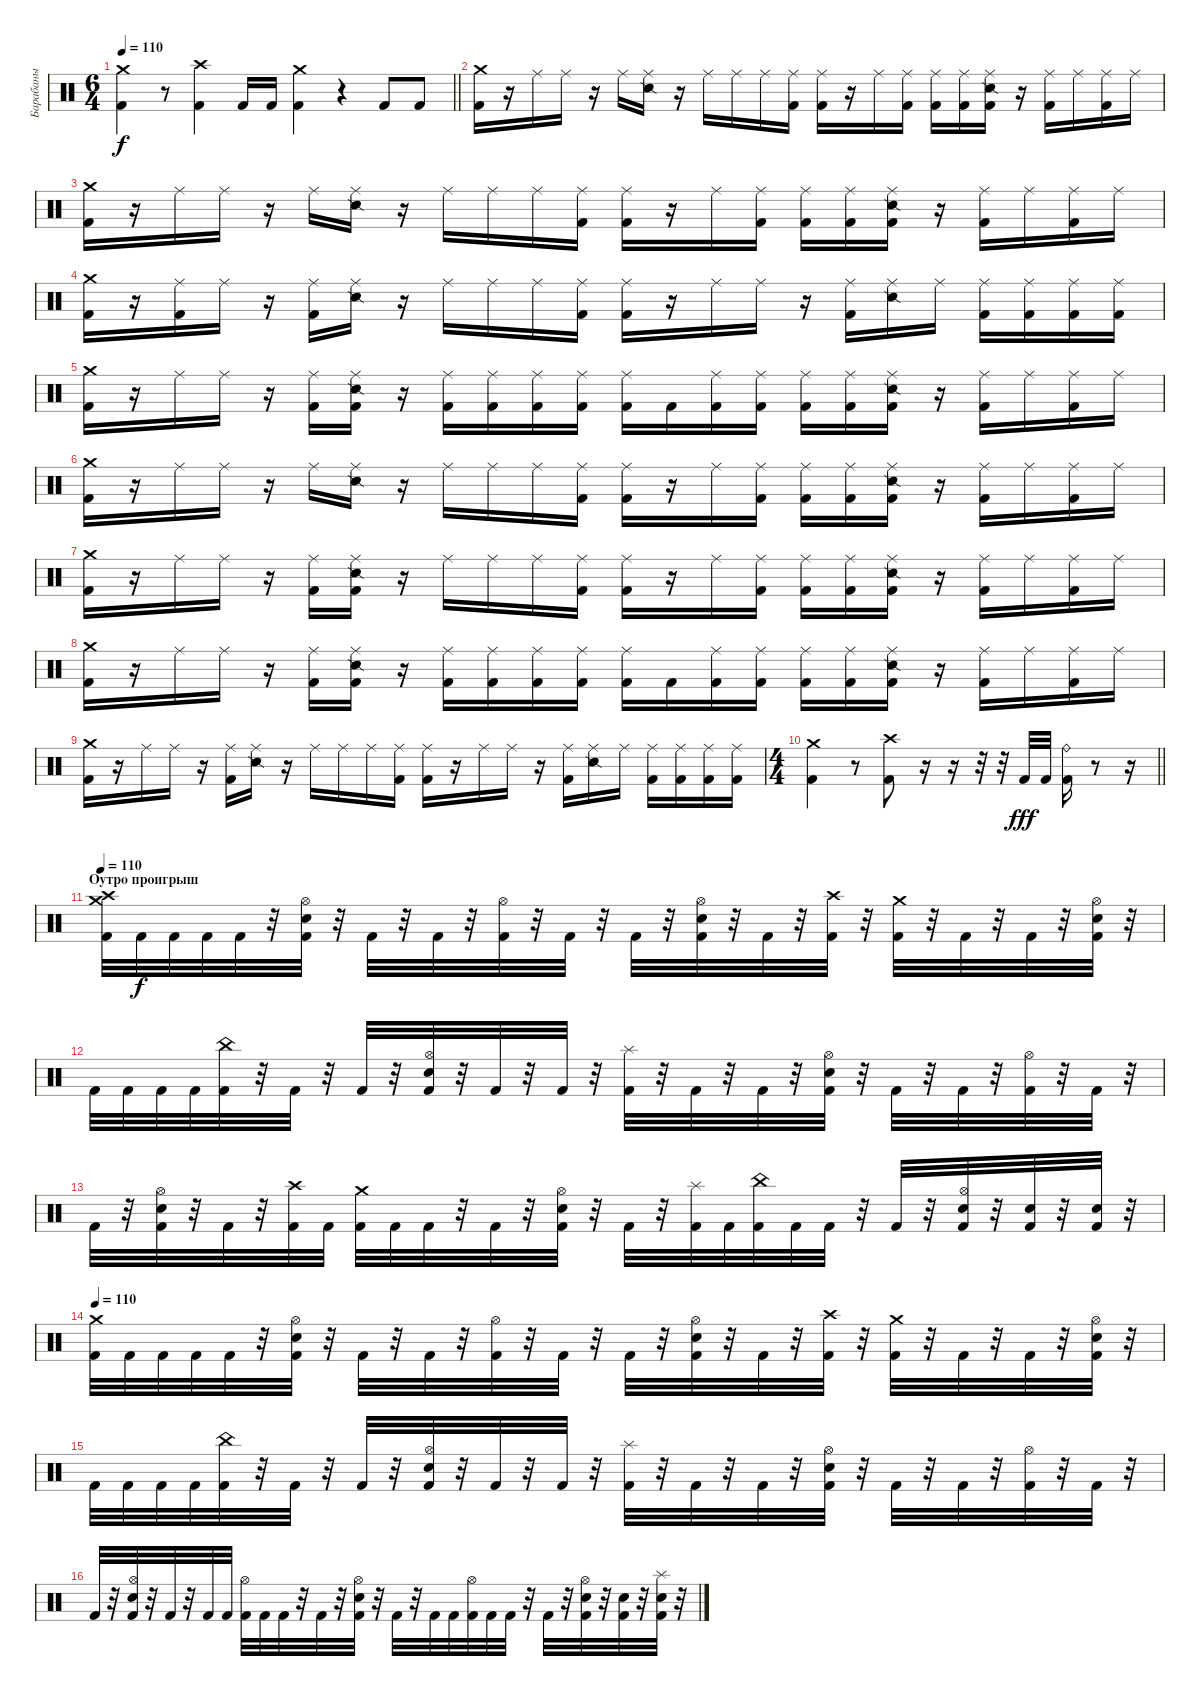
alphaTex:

\track ("Барабаны" "Барабаны") {instrument percussion}
\staff {score}
\articulation defaults
\ts (6 4)
\tempo 110
\clef neutral
\barLineRight lightlight
\ks c
("Crash medium (hit)" "Kick (hit) 2").4{dy f} r.8 ("Crash high (hit)" "Kick (hit) 2").4 "Kick (hit) 2".16 "Kick (hit) 2".16 ("Crash medium (hit)" "Kick (hit) 2").4 r.4 "Kick (hit) 2".8 "Kick (hit) 2".8 |
\section ("" "")
("Crash medium (hit)" "Kick (hit) 2").16 r.16 "Ride (middle)".16 "Ride (middle)".16 r.16 "Ride (middle)".16 ("Ride (middle)" "Snare (side stick) 2").16 r.16 "Ride (middle)".16 "Ride (middle)".16 "Ride (middle)".16 ("Ride (middle)" "Kick (hit) 2").16 ("Ride (middle)" "Kick (hit) 2").16 r.16 "Ride (middle)".16 ("Ride (middle)" "Kick (hit) 2").16 ("Ride (middle)" "Kick (hit) 2").16 ("Ride (middle)" "Kick (hit) 2").16 ("Ride (middle)" "Snare (side stick) 2" "Kick (hit) 2").16 r.16 ("Ride (middle)" "Kick (hit) 2").16 "Ride (middle)".16 ("Ride (middle)" "Kick (hit) 2").16 "Ride (middle)".16 |
("Crash medium (hit)" "Kick (hit) 2").16 r.16 "Ride (middle)".16 "Ride (middle)".16 r.16 "Ride (middle)".16 ("Ride (middle)" "Snare (side stick) 2").16 r.16 "Ride (middle)".16 "Ride (middle)".16 "Ride (middle)".16 ("Ride (middle)" "Kick (hit) 2").16 ("Ride (middle)" "Kick (hit) 2").16 r.16 "Ride (middle)".16 ("Ride (middle)" "Kick (hit) 2").16 ("Ride (middle)" "Kick (hit) 2").16 ("Ride (middle)" "Kick (hit) 2").16 ("Ride (middle)" "Snare (side stick) 2" "Kick (hit) 2").16 r.16 ("Ride (middle)" "Kick (hit) 2").16 "Ride (middle)".16 ("Ride (middle)" "Kick (hit) 2").16 "Ride (middle)".16 |
("Crash medium (hit)" "Kick (hit) 2").16 r.16 ("Ride (middle)" "Kick (hit) 2").16 "Ride (middle)".16 r.16 ("Ride (middle)" "Kick (hit) 2").16 ("Ride (middle)" "Snare (side stick) 2").16 r.16 "Ride (middle)".16 "Ride (middle)".16 "Ride (middle)".16 ("Ride (middle)" "Kick (hit) 2").16 ("Ride (middle)" "Kick (hit) 2").16 r.16 "Ride (middle)".16 "Ride (middle)".16 r.16 ("Ride (middle)" "Kick (hit) 2").16 ("Ride (middle)" "Snare (side stick) 2").16 "Ride (middle)".16 ("Ride (middle)" "Kick (hit) 2").16 ("Ride (middle)" "Kick (hit) 2").16 ("Ride (middle)" "Kick (hit) 2").16 ("Ride (middle)" "Kick (hit) 2").16 |
("Crash medium (hit)" "Kick (hit) 2").16 r.16 "Ride (middle)".16 "Ride (middle)".16 r.16 ("Ride (middle)" "Kick (hit) 2").16 ("Ride (middle)" "Snare (side stick) 2" "Kick (hit) 2").16 r.16 ("Ride (middle)" "Kick (hit) 2").16 ("Ride (middle)" "Kick (hit) 2").16 ("Ride (middle)" "Kick (hit) 2").16 ("Ride (middle)" "Kick (hit) 2").16 ("Ride (middle)" "Kick (hit) 2").16 "Kick (hit) 2".16 ("Ride (middle)" "Kick (hit) 2").16 ("Ride (middle)" "Kick (hit) 2").16 ("Ride (middle)" "Kick (hit) 2").16 ("Ride (middle)" "Kick (hit) 2").16 ("Ride (middle)" "Snare (side stick) 2" "Kick (hit) 2").16 r.16 ("Ride (middle)" "Kick (hit) 2").16 "Ride (middle)".16 ("Ride (middle)" "Kick (hit) 2").16 "Ride (middle)".16 |
("Crash medium (hit)" "Kick (hit) 2").16 r.16 "Ride (middle)".16 "Ride (middle)".16 r.16 "Ride (middle)".16 ("Ride (middle)" "Snare (side stick) 2").16 r.16 "Ride (middle)".16 "Ride (middle)".16 "Ride (middle)".16 ("Ride (middle)" "Kick (hit) 2").16 ("Ride (middle)" "Kick (hit) 2").16 r.16 "Ride (middle)".16 ("Ride (middle)" "Kick (hit) 2").16 ("Ride (middle)" "Kick (hit) 2").16 ("Ride (middle)" "Kick (hit) 2").16 ("Ride (middle)" "Snare (side stick) 2" "Kick (hit) 2").16 r.16 ("Ride (middle)" "Kick (hit) 2").16 "Ride (middle)".16 ("Ride (middle)" "Kick (hit) 2").16 "Ride (middle)".16 |
("Crash medium (hit)" "Kick (hit) 2").16 r.16 "Ride (middle)".16 "Ride (middle)".16 r.16 ("Ride (middle)" "Kick (hit) 2").16 ("Ride (middle)" "Snare (side stick) 2" "Kick (hit) 2").16 r.16 "Ride (middle)".16 "Ride (middle)".16 "Ride (middle)".16 ("Ride (middle)" "Kick (hit) 2").16 ("Ride (middle)" "Kick (hit) 2").16 r.16 "Ride (middle)".16 ("Ride (middle)" "Kick (hit) 2").16 ("Ride (middle)" "Kick (hit) 2").16 ("Ride (middle)" "Kick (hit) 2").16 ("Ride (middle)" "Snare (side stick) 2" "Kick (hit) 2").16 r.16 ("Ride (middle)" "Kick (hit) 2").16 "Ride (middle)".16 ("Ride (middle)" "Kick (hit) 2").16 "Ride (middle)".16 |
("Crash medium (hit)" "Kick (hit) 2").16 r.16 "Ride (middle)".16 "Ride (middle)".16 r.16 ("Ride (middle)" "Kick (hit) 2").16 ("Ride (middle)" "Snare (side stick) 2" "Kick (hit) 2").16 r.16 ("Ride (middle)" "Kick (hit) 2").16 ("Ride (middle)" "Kick (hit) 2").16 ("Ride (middle)" "Kick (hit) 2").16 ("Ride (middle)" "Kick (hit) 2").16 ("Ride (middle)" "Kick (hit) 2").16 "Kick (hit) 2".16 ("Ride (middle)" "Kick (hit) 2").16 ("Ride (middle)" "Kick (hit) 2").16 ("Ride (middle)" "Kick (hit) 2").16 ("Ride (middle)" "Kick (hit) 2").16 ("Ride (middle)" "Snare (side stick) 2" "Kick (hit) 2").16 r.16 ("Ride (middle)" "Kick (hit) 2").16 "Ride (middle)".16 ("Ride (middle)" "Kick (hit) 2").16 "Ride (middle)".16 |
("Crash medium (hit)" "Kick (hit) 2").16 r.16 "Ride (middle)".16 "Ride (middle)".16 r.16 ("Ride (middle)" "Kick (hit) 2").16 ("Ride (middle)" "Snare (side stick) 2").16 r.16 "Ride (middle)".16 "Ride (middle)".16 "Ride (middle)".16 ("Ride (middle)" "Kick (hit) 2").16 ("Ride (middle)" "Kick (hit) 2").16 r.16 "Ride (middle)".16 "Ride (middle)".16 r.16 ("Ride (middle)" "Kick (hit) 2").16 ("Ride (middle)" "Snare (side stick) 2").16 "Ride (middle)".16 ("Ride (middle)" "Kick (hit) 2").16 ("Ride (middle)" "Kick (hit) 2").16 ("Ride (middle)" "Kick (hit) 2").16 ("Ride (middle)" "Kick (hit) 2").16 |
\ts (4 4)
\barLineRight lightlight
("Crash medium (hit)" "Kick (hit) 2").4 r.8 ("Crash high (hit)" "Kick (hit) 2").8 r.16 r.16 r.32 r.32 "Kick (hit) 2".32{dy fff} "Kick (hit) 2".32 ("Ride (bell)" "Kick (hit) 2").16 r.8 r.16 |
\section ("" "Оутро проигрыш")
\tempo 110
("Crash medium (hit)" "Crash high (hit)" "Kick (hit) 2").32 "Kick (hit) 2".32{dy f} "Kick (hit) 2".32 "Kick (hit) 2".32 "Kick (hit) 2".32 r.32 ("Hi-Hat (open)" "Electric Snare (hit)" "Kick (hit) 2").32 r.32 "Kick (hit) 2".32 r.32 "Kick (hit) 2".32 r.32 ("Hi-Hat (open)" "Kick (hit) 2").32 r.32 "Kick (hit) 2".32 r.32 "Kick (hit) 2".32 r.32 ("Hi-Hat (open)" "Electric Snare (hit)" "Kick (hit) 2").32 r.32 "Kick (hit) 2".32 r.32 ("Crash high (hit)" "Kick (hit) 2").32 r.32 ("Crash medium (hit)" "Kick (hit) 2").32 r.32 "Kick (hit) 2".32 r.32 "Kick (hit) 2".32 r.32 ("Hi-Hat (open)" "Electric Snare (hit)" "Kick (hit) 2").32 r.32 |
"Kick (hit) 2".32 "Kick (hit) 2".32 "Kick (hit) 2".32 "Kick (hit) 2".32 ("China (hit)" "Kick (hit) 2").32 r.32 "Kick (hit) 2".32 r.32 "Kick (hit) 2".32 r.32 ("Hi-Hat (open)" "Electric Snare (hit)" "Kick (hit) 2").32 r.32 "Kick (hit) 2".32 r.32 "Kick (hit) 2".32 r.32 ("Splash (hit)" "Kick (hit) 2").32 r.32 "Kick (hit) 2".32 r.32 "Kick (hit) 2".32 r.32 ("Hi-Hat (open)" "Electric Snare (hit)" "Kick (hit) 2").32 r.32 "Kick (hit) 2".32 r.32 "Kick (hit) 2".32 r.32 ("Hi-Hat (open)" "Kick (hit) 2").32 r.32 "Kick (hit) 2".32 r.32 |
"Kick (hit) 2".32 r.32 ("Hi-Hat (open)" "Electric Snare (hit)" "Kick (hit) 2").32 r.32 "Kick (hit) 2".32 r.32 ("Crash high (hit)" "Kick (hit) 2").32 "Kick (hit) 2".32 ("Crash medium (hit)" "Kick (hit) 2").32 "Kick (hit) 2".32 "Kick (hit) 2".32 r.32 "Kick (hit) 2".32 r.32 ("Hi-Hat (open)" "Electric Snare (hit)" "Kick (hit) 2").32 r.32 "Kick (hit) 2".32 r.32 ("Splash (hit)" "Kick (hit) 2").32 "Kick (hit) 2".32 ("China (hit)" "Kick (hit) 2").32 "Kick (hit) 2".32 "Kick (hit) 2".32 r.32 "Kick (hit) 2".32 r.32 ("Hi-Hat (open)" "Electric Snare (hit)" "Kick (hit) 2").32 r.32 ("Electric Snare (hit)" "Kick (hit) 2").32 r.32 ("Electric Snare (hit)" "Kick (hit) 2").32 r.32 |
\tempo 110
("Crash medium (hit)" "Kick (hit) 2").32 "Kick (hit) 2".32 "Kick (hit) 2".32 "Kick (hit) 2".32 "Kick (hit) 2".32 r.32 ("Hi-Hat (open)" "Electric Snare (hit)" "Kick (hit) 2").32 r.32 "Kick (hit) 2".32 r.32 "Kick (hit) 2".32 r.32 ("Hi-Hat (open)" "Kick (hit) 2").32 r.32 "Kick (hit) 2".32 r.32 "Kick (hit) 2".32 r.32 ("Hi-Hat (open)" "Electric Snare (hit)" "Kick (hit) 2").32 r.32 "Kick (hit) 2".32 r.32 ("Crash high (hit)" "Kick (hit) 2").32 r.32 ("Crash medium (hit)" "Kick (hit) 2").32 r.32 "Kick (hit) 2".32 r.32 "Kick (hit) 2".32 r.32 ("Hi-Hat (open)" "Electric Snare (hit)" "Kick (hit) 2").32 r.32 |
"Kick (hit) 2".32 "Kick (hit) 2".32 "Kick (hit) 2".32 "Kick (hit) 2".32 ("China (hit)" "Kick (hit) 2").32 r.32 "Kick (hit) 2".32 r.32 "Kick (hit) 2".32 r.32 ("Hi-Hat (open)" "Electric Snare (hit)" "Kick (hit) 2").32 r.32 "Kick (hit) 2".32 r.32 "Kick (hit) 2".32 r.32 ("Splash (hit)" "Kick (hit) 2").32 r.32 "Kick (hit) 2".32 r.32 "Kick (hit) 2".32 r.32 ("Hi-Hat (open)" "Electric Snare (hit)" "Kick (hit) 2").32 r.32 "Kick (hit) 2".32 r.32 "Kick (hit) 2".32 r.32 ("Hi-Hat (open)" "Kick (hit) 2").32 r.32 "Kick (hit) 2".32 r.32 |
"Kick (hit) 2".32 r.32 ("Hi-Hat (open)" "Electric Snare (hit)" "Kick (hit) 2").32 r.32 "Kick (hit) 2".32 r.32 "Kick (hit) 2".32 "Kick (hit) 2".32 ("Hi-Hat (open)" "Kick (hit) 2").32 "Kick (hit) 2".32 "Kick (hit) 2".32 r.32 "Kick (hit) 2".32 r.32 ("Hi-Hat (open)" "Electric Snare (hit)" "Kick (hit) 2").32 r.32 "Kick (hit) 2".32 r.32 "Kick (hit) 2".32 "Kick (hit) 2".32 ("Hi-Hat (open)" "Kick (hit) 2").32 "Kick (hit) 2".32 "Kick (hit) 2".32 r.32 "Kick (hit) 2".32 r.32 ("Hi-Hat (open)" "Electric Snare (hit)" "Kick (hit) 2").32 r.32 ("Electric Snare (hit)" "Kick (hit) 2").32 r.32 ("Splash (hit)" "Electric Snare (hit)" "Kick (hit) 2").32 r.32
